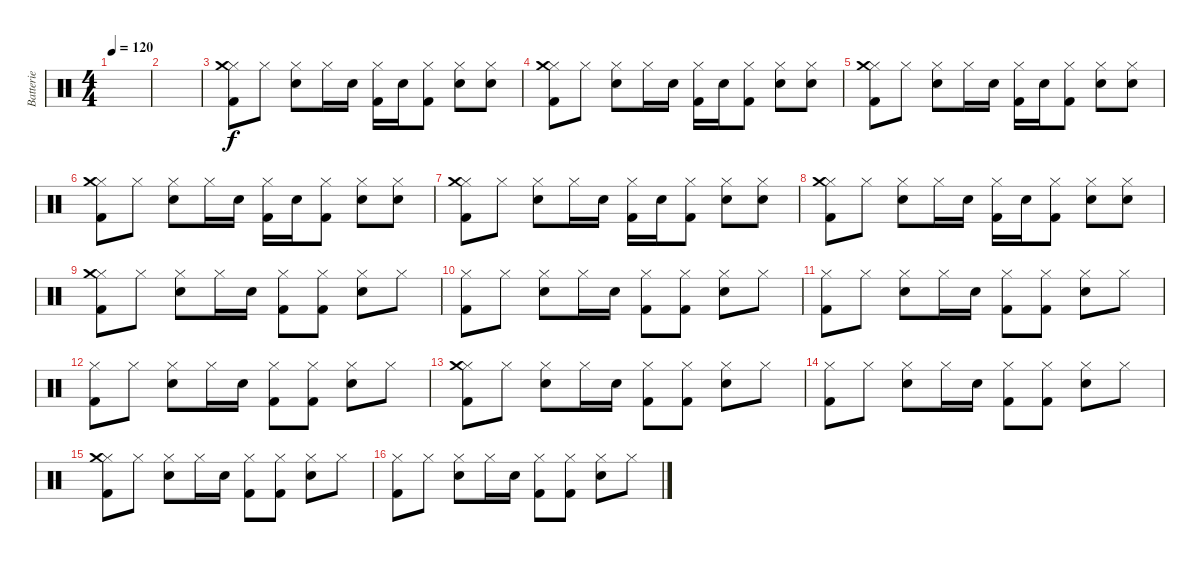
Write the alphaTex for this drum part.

\track ("Batterie" "Batterie") {instrument percussion}
\staff {score}
\articulation defaults
\ts (4 4)
\tempo 120
\clef neutral
\ks c
|
|
("Kick (hit) 2" "Hi-Hat (closed)" "Crash medium (hit)").8 "Hi-Hat (closed)".8 ("Snare (hit) 2" "Hi-Hat (closed)").8 "Hi-Hat (closed)".16 "Snare (hit) 2".16 ("Kick (hit) 2" "Hi-Hat (closed)").16 "Snare (hit) 2".16 ("Kick (hit) 2" "Hi-Hat (closed)").8 ("Snare (hit) 2" "Hi-Hat (closed)").8 ("Snare (hit) 2" "Hi-Hat (closed)").8 |
("Kick (hit) 2" "Hi-Hat (closed)" "Crash medium (hit)").8 "Hi-Hat (closed)".8 ("Snare (hit) 2" "Hi-Hat (closed)").8 "Hi-Hat (closed)".16 "Snare (hit) 2".16 ("Kick (hit) 2" "Hi-Hat (closed)").16 "Snare (hit) 2".16 ("Kick (hit) 2" "Hi-Hat (closed)").8 ("Snare (hit) 2" "Hi-Hat (closed)").8 ("Snare (hit) 2" "Hi-Hat (closed)").8 |
("Kick (hit) 2" "Hi-Hat (closed)" "Crash medium (hit)").8 "Hi-Hat (closed)".8 ("Snare (hit) 2" "Hi-Hat (closed)").8 "Hi-Hat (closed)".16 "Snare (hit) 2".16 ("Kick (hit) 2" "Hi-Hat (closed)").16 "Snare (hit) 2".16 ("Kick (hit) 2" "Hi-Hat (closed)").8 ("Snare (hit) 2" "Hi-Hat (closed)").8 ("Snare (hit) 2" "Hi-Hat (closed)").8 |
("Kick (hit) 2" "Hi-Hat (closed)" "Crash medium (hit)").8 "Hi-Hat (closed)".8 ("Snare (hit) 2" "Hi-Hat (closed)").8 "Hi-Hat (closed)".16 "Snare (hit) 2".16 ("Kick (hit) 2" "Hi-Hat (closed)").16 "Snare (hit) 2".16 ("Kick (hit) 2" "Hi-Hat (closed)").8 ("Snare (hit) 2" "Hi-Hat (closed)").8 ("Snare (hit) 2" "Hi-Hat (closed)").8 |
("Kick (hit) 2" "Hi-Hat (closed)" "Crash medium (hit)").8 "Hi-Hat (closed)".8 ("Snare (hit) 2" "Hi-Hat (closed)").8 "Hi-Hat (closed)".16 "Snare (hit) 2".16 ("Kick (hit) 2" "Hi-Hat (closed)").16 "Snare (hit) 2".16 ("Kick (hit) 2" "Hi-Hat (closed)").8 ("Snare (hit) 2" "Hi-Hat (closed)").8 ("Snare (hit) 2" "Hi-Hat (closed)").8 |
("Kick (hit) 2" "Hi-Hat (closed)" "Crash medium (hit)").8 "Hi-Hat (closed)".8 ("Snare (hit) 2" "Hi-Hat (closed)").8 "Hi-Hat (closed)".16 "Snare (hit) 2".16 ("Kick (hit) 2" "Hi-Hat (closed)").16 "Snare (hit) 2".16 ("Kick (hit) 2" "Hi-Hat (closed)").8 ("Snare (hit) 2" "Hi-Hat (closed)").8 ("Snare (hit) 2" "Hi-Hat (closed)").8 |
("Kick (hit) 2" "Hi-Hat (closed)" "Crash medium (hit)").8 "Hi-Hat (closed)".8 ("Snare (hit) 2" "Hi-Hat (closed)").8 "Hi-Hat (closed)".16 "Snare (hit) 2".16 ("Kick (hit) 2" "Hi-Hat (closed)").8 ("Kick (hit) 2" "Hi-Hat (closed)").8 ("Snare (hit) 2" "Hi-Hat (closed)").8 "Hi-Hat (closed)".8 |
("Kick (hit) 2" "Hi-Hat (closed)").8 "Hi-Hat (closed)".8 ("Snare (hit) 2" "Hi-Hat (closed)").8 "Hi-Hat (closed)".16 "Snare (hit) 2".16 ("Kick (hit) 2" "Hi-Hat (closed)").8 ("Kick (hit) 2" "Hi-Hat (closed)").8 ("Snare (hit) 2" "Hi-Hat (closed)").8 "Hi-Hat (closed)".8 |
("Kick (hit) 2" "Hi-Hat (closed)").8 "Hi-Hat (closed)".8 ("Snare (hit) 2" "Hi-Hat (closed)").8 "Hi-Hat (closed)".16 "Snare (hit) 2".16 ("Kick (hit) 2" "Hi-Hat (closed)").8 ("Kick (hit) 2" "Hi-Hat (closed)").8 ("Snare (hit) 2" "Hi-Hat (closed)").8 "Hi-Hat (closed)".8 |
("Kick (hit) 2" "Hi-Hat (closed)").8 "Hi-Hat (closed)".8 ("Snare (hit) 2" "Hi-Hat (closed)").8 "Hi-Hat (closed)".16 "Snare (hit) 2".16 ("Kick (hit) 2" "Hi-Hat (closed)").8 ("Kick (hit) 2" "Hi-Hat (closed)").8 ("Snare (hit) 2" "Hi-Hat (closed)").8 "Hi-Hat (closed)".8 |
("Kick (hit) 2" "Hi-Hat (closed)" "Crash medium (hit)").8 "Hi-Hat (closed)".8 ("Snare (hit) 2" "Hi-Hat (closed)").8 "Hi-Hat (closed)".16 "Snare (hit) 2".16 ("Kick (hit) 2" "Hi-Hat (closed)").8 ("Kick (hit) 2" "Hi-Hat (closed)").8 ("Snare (hit) 2" "Hi-Hat (closed)").8 "Hi-Hat (closed)".8 |
("Kick (hit) 2" "Hi-Hat (closed)").8 "Hi-Hat (closed)".8 ("Snare (hit) 2" "Hi-Hat (closed)").8 "Hi-Hat (closed)".16 "Snare (hit) 2".16 ("Kick (hit) 2" "Hi-Hat (closed)").8 ("Kick (hit) 2" "Hi-Hat (closed)").8 ("Snare (hit) 2" "Hi-Hat (closed)").8 "Hi-Hat (closed)".8 |
("Kick (hit) 2" "Hi-Hat (closed)" "Crash medium (hit)").8 "Hi-Hat (closed)".8 ("Snare (hit) 2" "Hi-Hat (closed)").8 "Hi-Hat (closed)".16 "Snare (hit) 2".16 ("Kick (hit) 2" "Hi-Hat (closed)").8 ("Kick (hit) 2" "Hi-Hat (closed)").8 ("Snare (hit) 2" "Hi-Hat (closed)").8 "Hi-Hat (closed)".8 |
("Kick (hit) 2" "Hi-Hat (closed)").8 "Hi-Hat (closed)".8 ("Snare (hit) 2" "Hi-Hat (closed)").8 "Hi-Hat (closed)".16 "Snare (hit) 2".16 ("Kick (hit) 2" "Hi-Hat (closed)").8 ("Kick (hit) 2" "Hi-Hat (closed)").8 ("Snare (hit) 2" "Hi-Hat (closed)").8 "Hi-Hat (closed)".8
